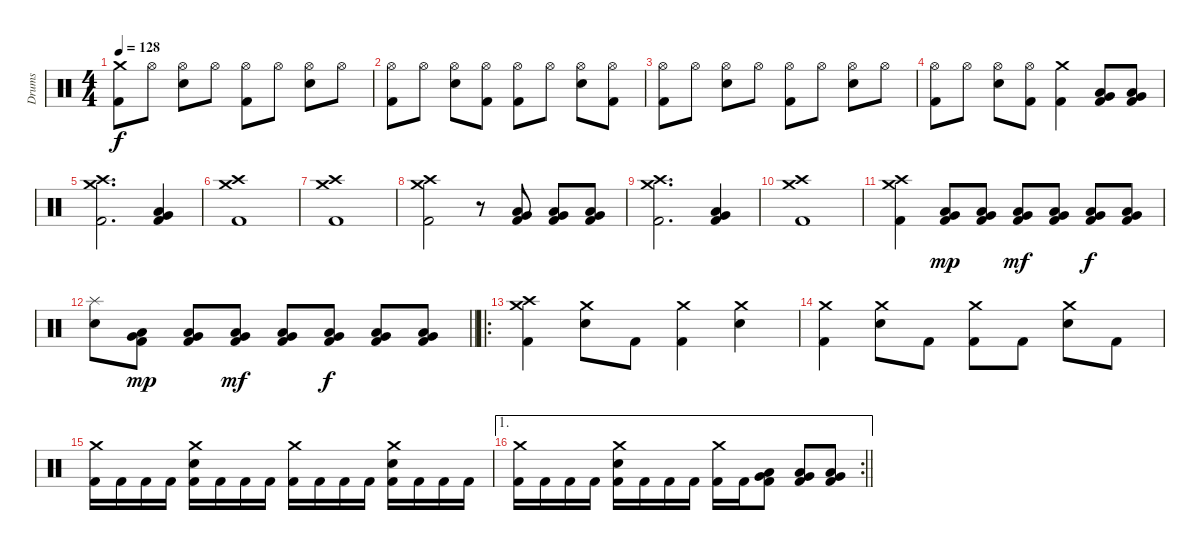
\track ("Drums" "Drums") {instrument percussion}
\staff {score}
\articulation defaults
\ts (4 4)
\tempo 128
\clef neutral
\ks c
("Crash medium (hit)" "Kick (hit) 2").8{dy f} "Hi-Hat (open)".8 ("Hi-Hat (open)" "Electric Snare (hit)").8 "Hi-Hat (open)".8 ("Hi-Hat (open)" "Kick (hit) 2").8 "Hi-Hat (open)".8 ("Hi-Hat (open)" "Electric Snare (hit)").8 "Hi-Hat (open)".8 |
("Hi-Hat (open)" "Kick (hit) 2").8 "Hi-Hat (open)".8 ("Hi-Hat (open)" "Electric Snare (hit)").8 ("Hi-Hat (open)" "Kick (hit) 2").8 ("Hi-Hat (open)" "Kick (hit) 2").8 "Hi-Hat (open)".8 ("Hi-Hat (open)" "Electric Snare (hit)").8 ("Hi-Hat (open)" "Kick (hit) 2").8 |
("Hi-Hat (open)" "Kick (hit) 2").8 "Hi-Hat (open)".8 ("Hi-Hat (open)" "Electric Snare (hit)").8 "Hi-Hat (open)".8 ("Hi-Hat (open)" "Kick (hit) 2").8 "Hi-Hat (open)".8 ("Hi-Hat (open)" "Electric Snare (hit)").8 "Hi-Hat (open)".8 |
("Hi-Hat (open)" "Kick (hit) 2").8 "Hi-Hat (open)".8 ("Hi-Hat (open)" "Electric Snare (hit)").8 ("Hi-Hat (open)" "Kick (hit) 2").8 ("Crash medium (hit)" "Kick (hit) 2").4 ("Low Floor Tom (hit)" "Very Low Tom (hit)" "Kick (hit) 2").8 ("Low Floor Tom (hit)" "Very Low Tom (hit)" "Kick (hit) 2").8 |
("Crash medium (hit)" "Crash high (hit)" "Kick (hit) 2").2{d} ("Low Floor Tom (hit)" "Very Low Tom (hit)" "Kick (hit) 2").4 |
("Crash medium (hit)" "Crash high (hit)" "Kick (hit) 2").1 |
("Crash medium (hit)" "Crash high (hit)" "Kick (hit) 2").1 |
("Crash medium (hit)" "Crash high (hit)" "Kick (hit) 2").2 r.8 ("Low Floor Tom (hit)" "Very Low Tom (hit)" "Kick (hit) 2").8 ("Low Floor Tom (hit)" "Very Low Tom (hit)" "Kick (hit) 2").8 ("Low Floor Tom (hit)" "Very Low Tom (hit)" "Kick (hit) 2").8 |
("Crash medium (hit)" "Crash high (hit)" "Kick (hit) 2").2{d} ("Low Floor Tom (hit)" "Very Low Tom (hit)" "Kick (hit) 2").4 |
("Crash medium (hit)" "Crash high (hit)" "Kick (hit) 2").1 |
("Crash medium (hit)" "Crash high (hit)" "Kick (hit) 2").4 ("Low Floor Tom (hit)" "Very Low Tom (hit)" "Kick (hit) 2").8{dy mp} ("Low Floor Tom (hit)" "Very Low Tom (hit)" "Kick (hit) 2").8 ("Low Floor Tom (hit)" "Very Low Tom (hit)" "Kick (hit) 2").8{dy mf} ("Low Floor Tom (hit)" "Very Low Tom (hit)" "Kick (hit) 2").8 ("Low Floor Tom (hit)" "Very Low Tom (hit)" "Kick (hit) 2").8{dy f} ("Low Floor Tom (hit)" "Very Low Tom (hit)" "Kick (hit) 2").8 |
\barLineRight lightlight
("Splash (hit)" "Electric Snare (hit)").8 ("Low Floor Tom (hit)" "Very Low Tom (hit)" "Kick (hit) 2").8{dy mp} ("Low Floor Tom (hit)" "Very Low Tom (hit)" "Kick (hit) 2").8 ("Low Floor Tom (hit)" "Very Low Tom (hit)" "Kick (hit) 2").8{dy mf} ("Low Floor Tom (hit)" "Very Low Tom (hit)" "Kick (hit) 2").8 ("Low Floor Tom (hit)" "Very Low Tom (hit)" "Kick (hit) 2").8{dy f} ("Low Floor Tom (hit)" "Very Low Tom (hit)" "Kick (hit) 2").8 ("Low Floor Tom (hit)" "Very Low Tom (hit)" "Kick (hit) 2").8 |
\ro
("Crash medium (hit)" "Crash high (hit)" "Kick (hit) 2").4 ("Crash medium (hit)" "Electric Snare (hit)").8 "Kick (hit) 2".8 ("Crash medium (hit)" "Kick (hit) 2").4 ("Crash medium (hit)" "Electric Snare (hit)").4 |
("Crash medium (hit)" "Kick (hit) 2").4 ("Crash medium (hit)" "Electric Snare (hit)").8 "Kick (hit) 2".8 ("Crash medium (hit)" "Kick (hit) 2").8 "Kick (hit) 2".8 ("Crash medium (hit)" "Electric Snare (hit)").8 "Kick (hit) 2".8 |
("Crash medium (hit)" "Kick (hit) 2").16 "Kick (hit) 2".16 "Kick (hit) 2".16 "Kick (hit) 2".16 ("Crash medium (hit)" "Electric Snare (hit)" "Kick (hit) 2").16 "Kick (hit) 2".16 "Kick (hit) 2".16 "Kick (hit) 2".16 ("Crash medium (hit)" "Kick (hit) 2").16 "Kick (hit) 2".16 "Kick (hit) 2".16 "Kick (hit) 2".16 ("Crash medium (hit)" "Electric Snare (hit)" "Kick (hit) 2").16 "Kick (hit) 2".16 "Kick (hit) 2".16 "Kick (hit) 2".16 |
\ae 1
\rc 2
\barLineRight lightlight
("Crash medium (hit)" "Kick (hit) 2").16 "Kick (hit) 2".16 "Kick (hit) 2".16 "Kick (hit) 2".16 ("Crash medium (hit)" "Electric Snare (hit)" "Kick (hit) 2").16 "Kick (hit) 2".16 "Kick (hit) 2".16 "Kick (hit) 2".16 ("Crash medium (hit)" "Kick (hit) 2").16 "Kick (hit) 2".16 ("Low Floor Tom (hit)" "Very Low Tom (hit)" "Kick (hit) 2").8 ("Low Floor Tom (hit)" "Very Low Tom (hit)" "Kick (hit) 2").8 ("Low Floor Tom (hit)" "Very Low Tom (hit)" "Kick (hit) 2").8
